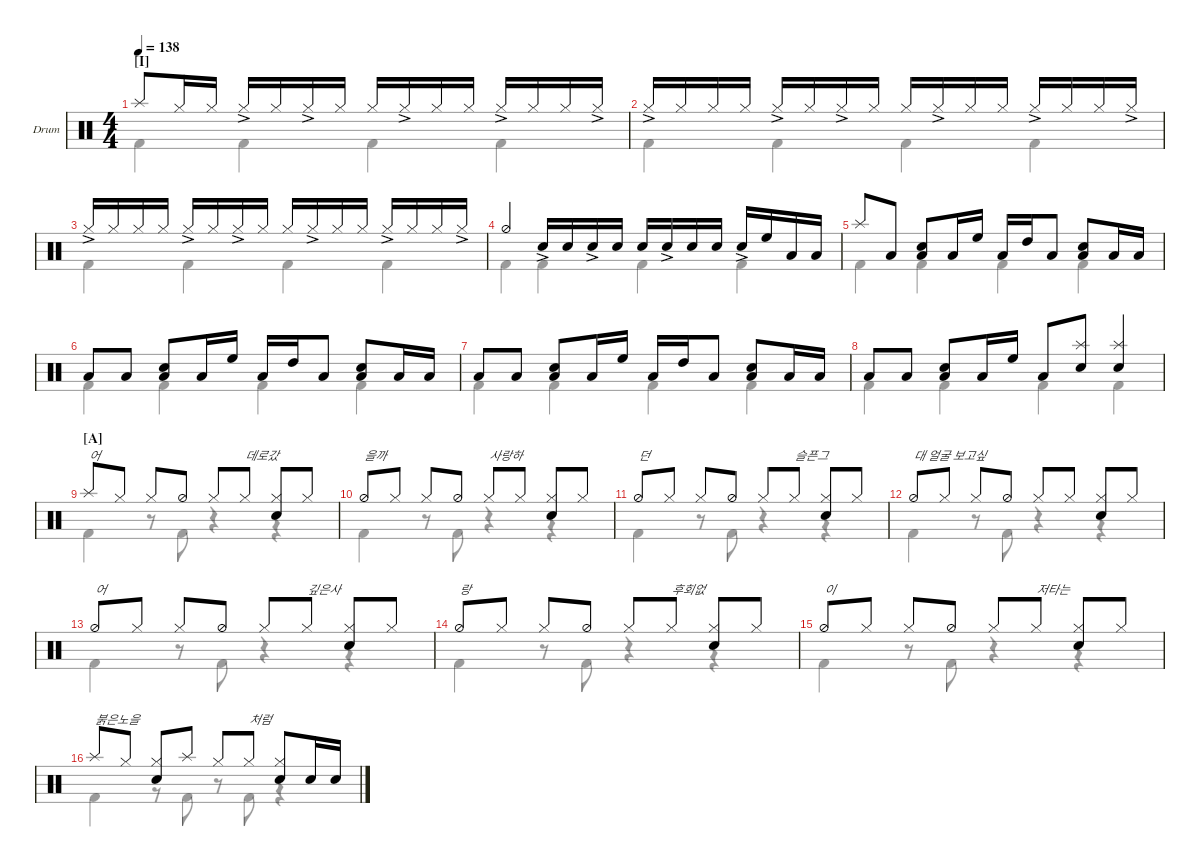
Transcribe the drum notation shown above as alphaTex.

\defaultSystemsLayout 4
\hideDynamics
\bracketExtendMode nobrackets
\firstSystemTrackNameOrientation horizontal
\track ("Drumkit" "Drum") {instrument percussion}
\staff {score}
\articulation defaults
\voice
\ts (4 4)
\section ("I" "")
\tempo 138
\clef neutral
\ks c "Splash (hit)".8{dy mf beam Up} "Hi-Hat (closed)".16{beam Up} "Hi-Hat (closed)".16{beam Up} "Hi-Hat (closed)"{ac}.16{beam Up} "Hi-Hat (closed)".16{beam Up} "Hi-Hat (closed)"{ac}.16{beam Up} "Hi-Hat (closed)".16{beam Up} "Hi-Hat (closed)".16{beam Up} "Hi-Hat (closed)"{ac}.16{beam Up} "Hi-Hat (closed)".16{beam Up} "Hi-Hat (closed)".16{beam Up} "Hi-Hat (closed)"{ac}.16{beam Up} "Hi-Hat (closed)".16{beam Up} "Hi-Hat (closed)".16{beam Up} "Hi-Hat (closed)"{ac}.16{beam Up}
|
"Hi-Hat (closed)"{ac}.16{beam Up} "Hi-Hat (closed)".16{beam Up} "Hi-Hat (closed)".16{beam Up} "Hi-Hat (closed)".16{beam Up} "Hi-Hat (closed)"{ac}.16{beam Up} "Hi-Hat (closed)".16{beam Up} "Hi-Hat (closed)"{ac}.16{beam Up} "Hi-Hat (closed)".16{beam Up} "Hi-Hat (closed)".16{beam Up} "Hi-Hat (closed)"{ac}.16{beam Up} "Hi-Hat (closed)".16{beam Up} "Hi-Hat (closed)".16{beam Up} "Hi-Hat (closed)"{ac}.16{beam Up} "Hi-Hat (closed)".16{beam Up} "Hi-Hat (closed)".16{beam Up} "Hi-Hat (closed)"{ac}.16{beam Up} |
"Hi-Hat (closed)"{ac}.16{beam Up} "Hi-Hat (closed)".16{beam Up} "Hi-Hat (closed)".16{beam Up} "Hi-Hat (closed)".16{beam Up} "Hi-Hat (closed)"{ac}.16{beam Up} "Hi-Hat (closed)".16{beam Up} "Hi-Hat (closed)"{ac}.16{beam Up} "Hi-Hat (closed)".16{beam Up} "Hi-Hat (closed)".16{beam Up} "Hi-Hat (closed)"{ac}.16{beam Up} "Hi-Hat (closed)".16{beam Up} "Hi-Hat (closed)".16{beam Up} "Hi-Hat (closed)"{ac}.16{beam Up} "Hi-Hat (closed)".16{beam Up} "Hi-Hat (closed)".16{beam Up} "Hi-Hat (closed)"{ac}.16{beam Up} |
"Hi-Hat (half)".4{beam Up} "Snare (hit) 2"{ac}.16{beam Up} "Snare (hit) 2".16{beam Up} "Snare (hit) 2"{ac}.16{beam Up} "Snare (hit) 2".16{beam Up} "Snare (hit) 2".16{beam Up} "Snare (hit) 2"{ac}.16{beam Up} "Snare (hit) 2".16{beam Up} "Snare (hit) 2".16{beam Up} "Snare (hit) 2"{ac}.16{beam Up} "High Floor Tom (hit)".16{beam Up} "Low Tom (hit)".16{beam Up} "Low Tom (hit)".16{beam Up} |
"Splash (hit)".8{beam Up} "Low Tom (hit)".8{beam Up} ("Low Tom (hit)" "Snare (hit) 2").8{beam Up} "Low Tom (hit)".16{beam Up} "High Floor Tom (hit)".16{beam Up} "Low Tom (hit)".16{beam Up} "High Tom (hit)".16{beam Up} "Low Tom (hit)".8{beam Up} ("Low Tom (hit)" "Snare (hit) 2").8{beam Up} "Low Tom (hit)".16{beam Up} "Low Tom (hit)".16{beam Up} |
"Low Tom (hit)".8{beam Up} "Low Tom (hit)".8{beam Up} ("Low Tom (hit)" "Snare (hit) 2").8{beam Up} "Low Tom (hit)".16{beam Up} "High Floor Tom (hit)".16{beam Up} "Low Tom (hit)".16{beam Up} "High Tom (hit)".16{beam Up} "Low Tom (hit)".8{beam Up} ("Low Tom (hit)" "Snare (hit) 2").8{beam Up} "Low Tom (hit)".16{beam Up} "Low Tom (hit)".16{beam Up} |
"Low Tom (hit)".8{beam Up} "Low Tom (hit)".8{beam Up} ("Low Tom (hit)" "Snare (hit) 2").8{beam Up} "Low Tom (hit)".16{beam Up} "High Floor Tom (hit)".16{beam Up} "Low Tom (hit)".16{beam Up} "High Tom (hit)".16{beam Up} "Low Tom (hit)".8{beam Up} ("Low Tom (hit)" "Snare (hit) 2").8{beam Up} "Low Tom (hit)".16{beam Up} "Low Tom (hit)".16{beam Up} |
"Low Tom (hit)".8{beam Up} "Low Tom (hit)".8{beam Up} ("Low Tom (hit)" "Snare (hit) 2").8{beam Up} "Low Tom (hit)".16{beam Up} "High Floor Tom (hit)".16{beam Up} "Low Tom (hit)".8{beam Up} ("Snare (hit) 2" "Splash (hit)").8{beam Up} ("Snare (hit) 2" "Splash (hit)").4{beam Up} |
\section ("A" "")
"Splash (hit)".8{txt "어" beam Up} "Hi-Hat (closed)".8{beam Up} "Hi-Hat (closed)".8{beam Up} "Hi-Hat (half)".8{beam Up} "Hi-Hat (closed)".8{beam Up} "Hi-Hat (closed)".8{txt "데로갔" beam Up} ("Hi-Hat (closed)" "Snare (hit) 2").8{beam Up} "Hi-Hat (closed)".8{beam Up} |
"Hi-Hat (half)".8{txt "을까" beam Up} "Hi-Hat (closed)".8{beam Up} "Hi-Hat (closed)".8{beam Up} "Hi-Hat (half)".8{beam Up} "Hi-Hat (closed)".8{txt "사랑하" beam Up} "Hi-Hat (closed)".8{beam Up} ("Hi-Hat (closed)" "Snare (hit) 2").8{beam Up} "Hi-Hat (closed)".8{beam Up} |
"Hi-Hat (half)".8{txt "던" beam Up} "Hi-Hat (closed)".8{beam Up} "Hi-Hat (closed)".8{beam Up} "Hi-Hat (half)".8{beam Up} "Hi-Hat (closed)".8{beam Up} "Hi-Hat (closed)".8{txt "슬픈그" beam Up} ("Hi-Hat (closed)" "Snare (hit) 2").8{beam Up} "Hi-Hat (closed)".8{beam Up} |
"Hi-Hat (half)".8{txt "대 얼굴 보고싶" beam Up} "Hi-Hat (closed)".8{beam Up} "Hi-Hat (closed)".8{beam Up} "Hi-Hat (half)".8{beam Up} "Hi-Hat (closed)".8{beam Up} "Hi-Hat (closed)".8{beam Up} ("Hi-Hat (closed)" "Snare (hit) 2").8{beam Up} "Hi-Hat (closed)".8{beam Up} |
"Hi-Hat (half)".8{txt "어" beam Up} "Hi-Hat (closed)".8{beam Up} "Hi-Hat (closed)".8{beam Up} "Hi-Hat (half)".8{beam Up} "Hi-Hat (closed)".8{beam Up} "Hi-Hat (closed)".8{txt "깊은사" beam Up} ("Hi-Hat (closed)" "Snare (hit) 2").8{beam Up} "Hi-Hat (closed)".8{beam Up} |
"Hi-Hat (half)".8{txt "랑" beam Up} "Hi-Hat (closed)".8{beam Up} "Hi-Hat (closed)".8{beam Up} "Hi-Hat (half)".8{beam Up} "Hi-Hat (closed)".8{beam Up} "Hi-Hat (closed)".8{txt "후회없" beam Up} ("Hi-Hat (closed)" "Snare (hit) 2").8{beam Up} "Hi-Hat (closed)".8{beam Up} |
"Hi-Hat (half)".8{txt "이" beam Up} "Hi-Hat (closed)".8{beam Up} "Hi-Hat (closed)".8{beam Up} "Hi-Hat (half)".8{beam Up} "Hi-Hat (closed)".8{beam Up} "Hi-Hat (closed)".8{txt "저타는" beam Up} ("Hi-Hat (closed)" "Snare (hit) 2").8{beam Up} "Hi-Hat (closed)".8{beam Up} |
"Splash (hit)".8{txt "붉은노을" beam Up} "Hi-Hat (closed)".8{beam Up} ("Hi-Hat (closed)" "Snare (hit) 2").8{beam Up} "Splash (hit)".8{beam Up} "Hi-Hat (closed)".8{beam Up} "Hi-Hat (closed)".8{txt "처럼" beam Up} ("Hi-Hat (closed)" "Snare (hit) 2").8{beam Up} "Snare (hit) 2".16{beam Up} "Snare (hit) 2".16{beam Up}
\voice
\clef neutral
\ottava regular
\simile none
\ks c
|
|
|
|
|
|
|
|
|
|
|
|
|
|
|
\voice
\clef neutral
\ottava regular
\simile none
\ks c "Kick (hit) 2".4{dy mf beam Down} "Kick (hit) 2".4{beam Down} "Kick (hit) 2".4{beam Down} "Kick (hit) 2".4{beam Down}
|
"Kick (hit) 2".4{beam Down} "Kick (hit) 2".4{beam Down} "Kick (hit) 2".4{beam Down} "Kick (hit) 2".4{beam Down} |
"Kick (hit) 2".4{beam Down} "Kick (hit) 2".4{beam Down} "Kick (hit) 2".4{beam Down} "Kick (hit) 2".4{beam Down} |
"Kick (hit) 2".4{beam Down} "Kick (hit) 2".4{beam Down} "Kick (hit) 2".4{beam Down} "Kick (hit) 2".4{beam Down} |
"Kick (hit) 2".4{beam Down} "Kick (hit) 2".4{beam Down} "Kick (hit) 2".4{beam Down} "Kick (hit) 2".4{beam Down} |
"Kick (hit) 2".4{beam Down} "Kick (hit) 2".4{beam Down} "Kick (hit) 2".4{beam Down} "Kick (hit) 2".4{beam Down} |
"Kick (hit) 2".4{beam Down} "Kick (hit) 2".4{beam Down} "Kick (hit) 2".4{beam Down} "Kick (hit) 2".4{beam Down} |
"Kick (hit) 2".4{beam Down} "Kick (hit) 2".4{beam Down} "Kick (hit) 2".4{beam Down} "Kick (hit) 2".4{beam Down} |
"Kick (hit) 2".4{beam Down} r.8{beam Down} "Kick (hit) 2".8{beam Down} r.4{beam Down} r.4{beam Down} |
"Kick (hit) 2".4{beam Down} r.8{beam Down} "Kick (hit) 2".8{beam Down} r.4{beam Down} r.4{beam Down} |
"Kick (hit) 2".4{beam Down} r.8{beam Down} "Kick (hit) 2".8{beam Down} r.4{beam Down} r.4{beam Down} |
"Kick (hit) 2".4{beam Down} r.8{beam Down} "Kick (hit) 2".8{beam Down} r.4{beam Down} r.4{beam Down} |
"Kick (hit) 2".4{beam Down} r.8{beam Down} "Kick (hit) 2".8{beam Down} r.4{beam Down} r.4{beam Down} |
"Kick (hit) 2".4{beam Down} r.8{beam Down} "Kick (hit) 2".8{beam Down} r.4{beam Down} r.4{beam Down} |
"Kick (hit) 2".4{beam Down} r.8{beam Down} "Kick (hit) 2".8{beam Down} r.4{beam Down} r.4{beam Down} |
"Kick (hit) 2".4{beam Down} r.8{beam Down} "Kick (hit) 2".8{beam Down} r.8{beam Down} "Kick (hit) 2".8{beam Down} r.4{beam Down}
